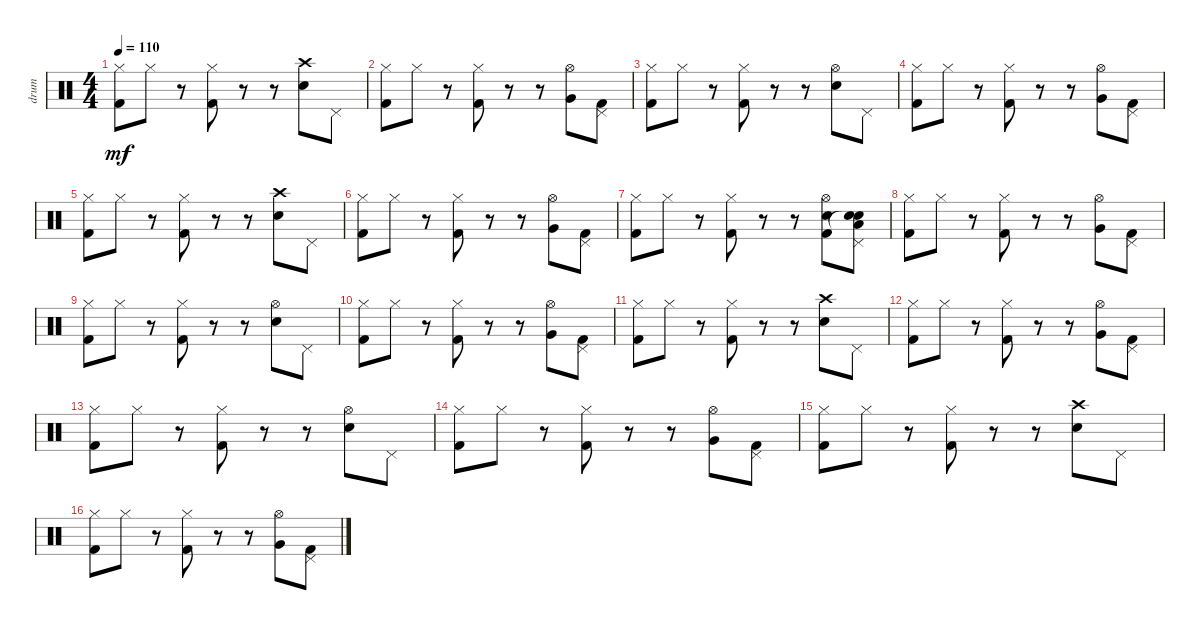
\track ("drum" "drum") {instrument percussion}
\staff
\articulation defaults
\ts (4 4)
\tempo 110
\clef neutral
\ks c
("Hi-Hat (closed)" "Kick (hit) 2").8{dy mf} "Hi-Hat (closed)".8 r.8 ("Hi-Hat (closed)" "Kick (hit) 2").8 r.8 r.8 ("Crash high (hit)" "Electric Snare (hit)").8 "Pedal Hi-Hat (hit)".8 |
("Hi-Hat (closed)" "Kick (hit) 2").8 "Hi-Hat (closed)".8 r.8 ("Hi-Hat (closed)" "Kick (hit) 2").8 r.8 r.8 ("Hi-Hat (open)" "Very Low Tom (hit)").8 ("Pedal Hi-Hat (hit)" "Kick (hit) 2").8 |
("Hi-Hat (closed)" "Kick (hit) 2").8 "Hi-Hat (closed)".8 r.8 ("Hi-Hat (closed)" "Kick (hit) 2").8 r.8 r.8 ("Hi-Hat (open)" "Electric Snare (hit)").8 "Pedal Hi-Hat (hit)".8 |
("Hi-Hat (closed)" "Kick (hit) 2").8 "Hi-Hat (closed)".8 r.8 ("Hi-Hat (closed)" "Kick (hit) 2").8 r.8 r.8 ("Hi-Hat (open)" "Very Low Tom (hit)").8 ("Pedal Hi-Hat (hit)" "Kick (hit) 2").8 |
("Hi-Hat (closed)" "Kick (hit) 2").8 "Hi-Hat (closed)".8 r.8 ("Hi-Hat (closed)" "Kick (hit) 2").8 r.8 r.8 ("Crash high (hit)" "Electric Snare (hit)").8 "Pedal Hi-Hat (hit)".8 |
("Hi-Hat (closed)" "Kick (hit) 2").8 "Hi-Hat (closed)".8 r.8 ("Hi-Hat (closed)" "Kick (hit) 2").8 r.8 r.8 ("Hi-Hat (open)" "Very Low Tom (hit)").8 ("Pedal Hi-Hat (hit)" "Kick (hit) 2").8 |
("Hi-Hat (closed)" "Kick (hit) 2").8 "Hi-Hat (closed)".8 r.8 ("Hi-Hat (closed)" "Kick (hit) 2").8 r.8 r.8 ("Hi-Hat (open)" "Electric Snare (hit)" "Kick (hit) 2").8 ("Pedal Hi-Hat (hit)" "Low Floor Tom (hit)" "Snare (hit)"{t} "Snare (hit)").8 |
("Hi-Hat (closed)" "Kick (hit) 2").8 "Hi-Hat (closed)".8 r.8 ("Hi-Hat (closed)" "Kick (hit) 2").8 r.8 r.8 ("Hi-Hat (open)" "Very Low Tom (hit)").8 ("Pedal Hi-Hat (hit)" "Kick (hit) 2").8 |
("Hi-Hat (closed)" "Kick (hit) 2").8 "Hi-Hat (closed)".8 r.8 ("Hi-Hat (closed)" "Kick (hit) 2").8 r.8 r.8 ("Hi-Hat (open)" "Electric Snare (hit)").8 "Pedal Hi-Hat (hit)".8 |
("Hi-Hat (closed)" "Kick (hit) 2").8 "Hi-Hat (closed)".8 r.8 ("Hi-Hat (closed)" "Kick (hit) 2").8 r.8 r.8 ("Hi-Hat (open)" "Very Low Tom (hit)").8 ("Pedal Hi-Hat (hit)" "Kick (hit) 2").8 |
("Hi-Hat (closed)" "Kick (hit) 2").8 "Hi-Hat (closed)".8 r.8 ("Hi-Hat (closed)" "Kick (hit) 2").8 r.8 r.8 ("Crash high (hit)" "Electric Snare (hit)").8 "Pedal Hi-Hat (hit)".8 |
("Hi-Hat (closed)" "Kick (hit) 2").8 "Hi-Hat (closed)".8 r.8 ("Hi-Hat (closed)" "Kick (hit) 2").8 r.8 r.8 ("Hi-Hat (open)" "Very Low Tom (hit)").8 ("Pedal Hi-Hat (hit)" "Kick (hit) 2").8 |
("Hi-Hat (closed)" "Kick (hit) 2").8 "Hi-Hat (closed)".8 r.8 ("Hi-Hat (closed)" "Kick (hit) 2").8 r.8 r.8 ("Hi-Hat (open)" "Electric Snare (hit)").8 "Pedal Hi-Hat (hit)".8 |
("Hi-Hat (closed)" "Kick (hit) 2").8 "Hi-Hat (closed)".8 r.8 ("Hi-Hat (closed)" "Kick (hit) 2").8 r.8 r.8 ("Hi-Hat (open)" "Very Low Tom (hit)").8 ("Pedal Hi-Hat (hit)" "Kick (hit) 2").8 |
("Hi-Hat (closed)" "Kick (hit) 2").8 "Hi-Hat (closed)".8 r.8 ("Hi-Hat (closed)" "Kick (hit) 2").8 r.8 r.8 ("Crash high (hit)" "Electric Snare (hit)").8 "Pedal Hi-Hat (hit)".8 |
("Hi-Hat (closed)" "Kick (hit) 2").8 "Hi-Hat (closed)".8 r.8 ("Hi-Hat (closed)" "Kick (hit) 2").8 r.8 r.8 ("Hi-Hat (open)" "Very Low Tom (hit)").8 ("Pedal Hi-Hat (hit)" "Kick (hit) 2").8
